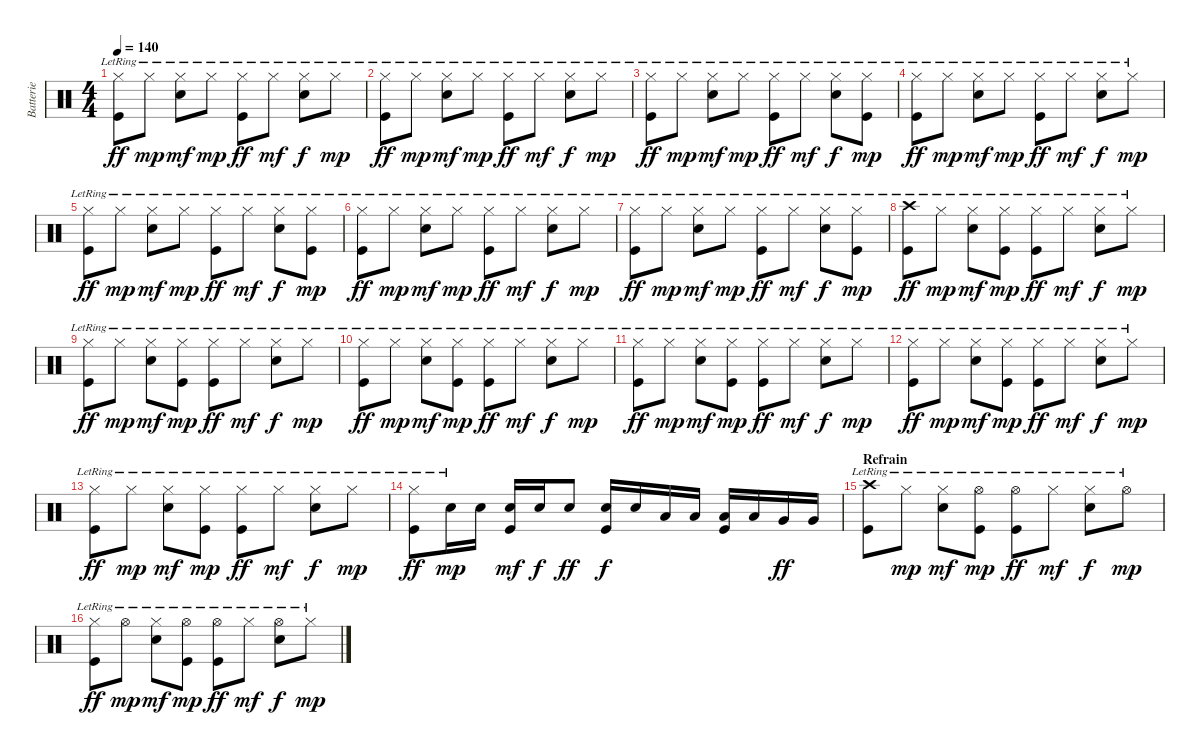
\track ("Batterie" "Batterie") {instrument percussion}
\staff {score}
\articulation defaults
\ts (4 4)
\tempo 140
\clef neutral
\ks c
("Hi-Hat (closed)"{lr} "Kick (hit)"{lr}).8{dy ff} "Hi-Hat (closed)"{lr}.8{dy mp} ("Hi-Hat (closed)"{lr} "Snare (hit) 2"{lr}).8{dy mf} "Hi-Hat (closed)"{lr}.8{dy mp} ("Hi-Hat (closed)"{lr} "Kick (hit)"{lr}).8{dy ff} "Hi-Hat (closed)"{lr}.8{dy mf} ("Hi-Hat (closed)"{lr} "Snare (hit) 2"{lr}).8{dy f} "Hi-Hat (closed)"{lr}.8{dy mp} |
("Hi-Hat (closed)"{lr} "Kick (hit)"{lr}).8{dy ff} "Hi-Hat (closed)"{lr}.8{dy mp} ("Hi-Hat (closed)"{lr} "Snare (hit) 2"{lr}).8{dy mf} "Hi-Hat (closed)"{lr}.8{dy mp} ("Hi-Hat (closed)"{lr} "Kick (hit)"{lr}).8{dy ff} "Hi-Hat (closed)"{lr}.8{dy mf} ("Hi-Hat (closed)"{lr} "Snare (hit) 2"{lr}).8{dy f} "Hi-Hat (closed)"{lr}.8{dy mp} |
("Hi-Hat (closed)"{lr} "Kick (hit)"{lr}).8{dy ff} "Hi-Hat (closed)"{lr}.8{dy mp} ("Hi-Hat (closed)"{lr} "Snare (hit) 2"{lr}).8{dy mf} "Hi-Hat (closed)"{lr}.8{dy mp} ("Hi-Hat (closed)"{lr} "Kick (hit)"{lr}).8{dy ff} "Hi-Hat (closed)"{lr}.8{dy mf} ("Hi-Hat (closed)"{lr} "Snare (hit) 2"{lr}).8{dy f} ("Hi-Hat (closed)"{lr} "Kick (hit)").8{dy mp} |
("Hi-Hat (closed)"{lr} "Kick (hit)"{lr}).8{dy ff} "Hi-Hat (closed)"{lr}.8{dy mp} ("Hi-Hat (closed)"{lr} "Snare (hit) 2"{lr}).8{dy mf} "Hi-Hat (closed)"{lr}.8{dy mp} ("Hi-Hat (closed)"{lr} "Kick (hit)"{lr}).8{dy ff} "Hi-Hat (closed)"{lr}.8{dy mf} ("Hi-Hat (closed)"{lr} "Snare (hit) 2"{lr}).8{dy f} "Hi-Hat (closed)"{lr}.8{dy mp} |
("Hi-Hat (closed)"{lr} "Kick (hit)"{lr}).8{dy ff} "Hi-Hat (closed)"{lr}.8{dy mp} ("Hi-Hat (closed)"{lr} "Snare (hit) 2"{lr}).8{dy mf} "Hi-Hat (closed)"{lr}.8{dy mp} ("Hi-Hat (closed)"{lr} "Kick (hit)"{lr}).8{dy ff} "Hi-Hat (closed)"{lr}.8{dy mf} ("Hi-Hat (closed)"{lr} "Snare (hit) 2"{lr}).8{dy f} ("Hi-Hat (closed)"{lr} "Kick (hit)").8{dy mp} |
("Hi-Hat (closed)"{lr} "Kick (hit)"{lr}).8{dy ff} "Hi-Hat (closed)"{lr}.8{dy mp} ("Hi-Hat (closed)"{lr} "Snare (hit) 2"{lr}).8{dy mf} "Hi-Hat (closed)"{lr}.8{dy mp} ("Hi-Hat (closed)"{lr} "Kick (hit)"{lr}).8{dy ff} "Hi-Hat (closed)"{lr}.8{dy mf} ("Hi-Hat (closed)"{lr} "Snare (hit) 2"{lr}).8{dy f} "Hi-Hat (closed)"{lr}.8{dy mp} |
("Hi-Hat (closed)"{lr} "Kick (hit)"{lr}).8{dy ff} "Hi-Hat (closed)"{lr}.8{dy mp} ("Hi-Hat (closed)"{lr} "Snare (hit) 2"{lr}).8{dy mf} "Hi-Hat (closed)"{lr}.8{dy mp} ("Hi-Hat (closed)"{lr} "Kick (hit)"{lr}).8{dy ff} "Hi-Hat (closed)"{lr}.8{dy mf} ("Hi-Hat (closed)"{lr} "Snare (hit) 2"{lr}).8{dy f} ("Hi-Hat (closed)"{lr} "Kick (hit)").8{dy mp} |
("Crash high (hit)" "Kick (hit)"{lr}).8{dy ff} "Hi-Hat (closed)"{lr}.8{dy mp} ("Hi-Hat (closed)"{lr} "Snare (hit) 2"{lr}).8{dy mf} ("Hi-Hat (closed)"{lr} "Kick (hit)").8{dy mp} ("Hi-Hat (closed)"{lr} "Kick (hit)"{lr}).8{dy ff} "Hi-Hat (closed)"{lr}.8{dy mf} ("Hi-Hat (closed)"{lr} "Snare (hit) 2"{lr}).8{dy f} "Hi-Hat (closed)"{lr}.8{dy mp} |
("Hi-Hat (closed)"{lr} "Kick (hit)"{lr}).8{dy ff} "Hi-Hat (closed)"{lr}.8{dy mp} ("Hi-Hat (closed)"{lr} "Snare (hit) 2"{lr}).8{dy mf} ("Hi-Hat (closed)"{lr} "Kick (hit)").8{dy mp} ("Hi-Hat (closed)"{lr} "Kick (hit)"{lr}).8{dy ff} "Hi-Hat (closed)"{lr}.8{dy mf} ("Hi-Hat (closed)"{lr} "Snare (hit) 2"{lr}).8{dy f} "Hi-Hat (closed)"{lr}.8{dy mp} |
("Hi-Hat (closed)"{lr} "Kick (hit)"{lr}).8{dy ff} "Hi-Hat (closed)"{lr}.8{dy mp} ("Hi-Hat (closed)"{lr} "Snare (hit) 2"{lr}).8{dy mf} ("Hi-Hat (closed)"{lr} "Kick (hit)").8{dy mp} ("Hi-Hat (closed)"{lr} "Kick (hit)"{lr}).8{dy ff} "Hi-Hat (closed)"{lr}.8{dy mf} ("Hi-Hat (closed)"{lr} "Snare (hit) 2"{lr}).8{dy f} "Hi-Hat (closed)"{lr}.8{dy mp} |
("Hi-Hat (closed)"{lr} "Kick (hit)"{lr}).8{dy ff} "Hi-Hat (closed)"{lr}.8{dy mp} ("Hi-Hat (closed)"{lr} "Snare (hit) 2"{lr}).8{dy mf} ("Hi-Hat (closed)"{lr} "Kick (hit)").8{dy mp} ("Hi-Hat (closed)"{lr} "Kick (hit)"{lr}).8{dy ff} "Hi-Hat (closed)"{lr}.8{dy mf} ("Hi-Hat (closed)"{lr} "Snare (hit) 2"{lr}).8{dy f} "Hi-Hat (closed)"{lr}.8{dy mp} |
("Hi-Hat (closed)"{lr} "Kick (hit)"{lr}).8{dy ff} "Hi-Hat (closed)"{lr}.8{dy mp} ("Hi-Hat (closed)"{lr} "Snare (hit) 2"{lr}).8{dy mf} ("Hi-Hat (closed)"{lr} "Kick (hit)").8{dy mp} ("Hi-Hat (closed)"{lr} "Kick (hit)"{lr}).8{dy ff} "Hi-Hat (closed)"{lr}.8{dy mf} ("Hi-Hat (closed)"{lr} "Snare (hit) 2"{lr}).8{dy f} "Hi-Hat (closed)"{lr}.8{dy mp} |
("Hi-Hat (closed)"{lr} "Kick (hit)"{lr}).8{dy ff} "Hi-Hat (closed)"{lr}.8{dy mp} ("Hi-Hat (closed)"{lr} "Snare (hit) 2"{lr}).8{dy mf} ("Hi-Hat (closed)"{lr} "Kick (hit)").8{dy mp} ("Hi-Hat (closed)"{lr} "Kick (hit)"{lr}).8{dy ff} "Hi-Hat (closed)"{lr}.8{dy mf} ("Hi-Hat (closed)"{lr} "Snare (hit) 2"{lr}).8{dy f} "Hi-Hat (closed)"{lr}.8{dy mp} |
("Hi-Hat (closed)"{lr} "Kick (hit)"{lr}).8{dy ff} "Snare (hit) 2"{lr}.16{dy mp} "Snare (hit) 2".16 ("Snare (hit) 2" "Kick (hit)").16{dy mf} "Snare (hit) 2".16{dy f} "Snare (hit) 2".8{dy ff} ("Snare (hit) 2" "Kick (hit)").16{dy f} "Snare (hit) 2".16 "Low Tom (hit)".16 "Low Tom (hit)".16 ("Low Tom (hit)" "Kick (hit)").16 "Low Tom (hit)".16 "Very Low Tom (hit)".16{dy ff} "Very Low Tom (hit)".16 |
\section ("" "Refrain")
("Crash high (hit)"{lr} "Kick (hit)"{lr}).8 "Hi-Hat (closed)"{lr}.8{dy mp} ("Hi-Hat (closed)"{lr} "Snare (hit) 2"{lr}).8{dy mf} ("Hi-Hat (open)"{lr} "Kick (hit)").8{dy mp} ("Hi-Hat (open)"{lr} "Kick (hit)"{lr}).8{dy ff} "Hi-Hat (closed)"{lr}.8{dy mf} ("Hi-Hat (closed)"{lr} "Snare (hit) 2"{lr}).8{dy f} "Hi-Hat (open)"{lr}.8{dy mp} |
("Hi-Hat (closed)"{lr} "Kick (hit)"{lr}).8{dy ff} "Hi-Hat (open)"{lr}.8{dy mp} ("Hi-Hat (closed)"{lr} "Snare (hit) 2"{lr}).8{dy mf} ("Hi-Hat (open)"{lr} "Kick (hit)").8{dy mp} ("Hi-Hat (open)"{lr} "Kick (hit)"{lr}).8{dy ff} "Hi-Hat (closed)"{lr}.8{dy mf} ("Hi-Hat (open)"{lr} "Snare (hit) 2"{lr}).8{dy f} "Hi-Hat (closed)"{lr}.8{dy mp}
